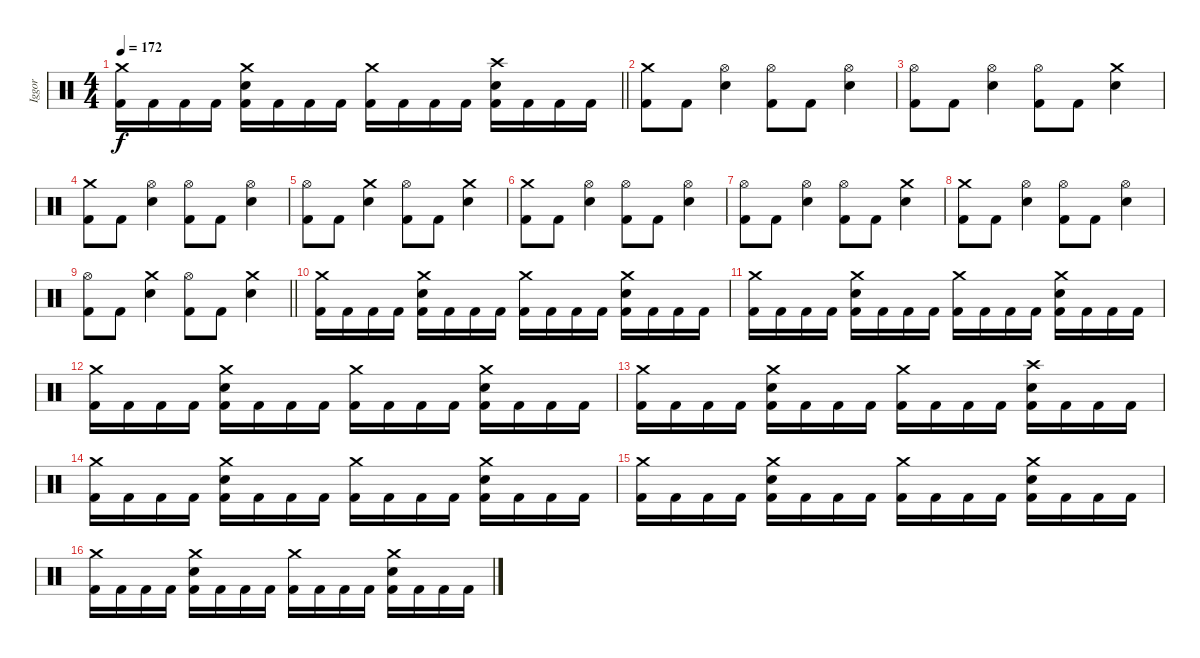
\track ("Iggor" "Iggor") {instrument percussion}
\staff {score}
\articulation defaults
\ts (4 4)
\tempo 172
\clef neutral
\barLineRight lightlight
\ks c
("Crash medium (hit)" "Kick (hit) 2").16{dy f} "Kick (hit) 2".16 "Kick (hit) 2".16 "Kick (hit) 2".16 ("Crash medium (hit)" "Snare (hit) 2" "Kick (hit) 2").16 "Kick (hit) 2".16 "Kick (hit) 2".16 "Kick (hit) 2".16 ("Crash medium (hit)" "Kick (hit) 2").16 "Kick (hit) 2".16 "Kick (hit) 2".16 "Kick (hit) 2".16 ("Crash high (hit)" "Snare (hit) 2" "Kick (hit) 2").16 "Kick (hit) 2".16 "Kick (hit) 2".16 "Kick (hit) 2".16 |
("Crash medium (hit)" "Kick (hit) 2").8 "Kick (hit) 2".8 ("Hi-Hat (open)" "Snare (hit) 2").4 ("Hi-Hat (open)" "Kick (hit) 2").8 "Kick (hit) 2".8 ("Hi-Hat (open)" "Snare (hit) 2").4 |
("Hi-Hat (open)" "Kick (hit) 2").8 "Kick (hit) 2".8 ("Hi-Hat (open)" "Snare (hit) 2").4 ("Hi-Hat (open)" "Kick (hit) 2").8 "Kick (hit) 2".8 ("Crash medium (hit)" "Snare (hit) 2").4 |
("Crash medium (hit)" "Kick (hit) 2").8 "Kick (hit) 2".8 ("Hi-Hat (open)" "Snare (hit) 2").4 ("Hi-Hat (open)" "Kick (hit) 2").8 "Kick (hit) 2".8 ("Hi-Hat (open)" "Snare (hit) 2").4 |
("Hi-Hat (open)" "Kick (hit) 2").8 "Kick (hit) 2".8 ("Crash medium (hit)" "Snare (hit) 2").4 ("Hi-Hat (open)" "Kick (hit) 2").8 "Kick (hit) 2".8 ("Crash medium (hit)" "Snare (hit) 2").4 |
("Crash medium (hit)" "Kick (hit) 2").8 "Kick (hit) 2".8 ("Hi-Hat (open)" "Snare (hit) 2").4 ("Hi-Hat (open)" "Kick (hit) 2").8 "Kick (hit) 2".8 ("Hi-Hat (open)" "Snare (hit) 2").4 |
("Hi-Hat (open)" "Kick (hit) 2").8 "Kick (hit) 2".8 ("Hi-Hat (open)" "Snare (hit) 2").4 ("Hi-Hat (open)" "Kick (hit) 2").8 "Kick (hit) 2".8 ("Crash medium (hit)" "Snare (hit) 2").4 |
("Crash medium (hit)" "Kick (hit) 2").8 "Kick (hit) 2".8 ("Hi-Hat (open)" "Snare (hit) 2").4 ("Hi-Hat (open)" "Kick (hit) 2").8 "Kick (hit) 2".8 ("Hi-Hat (open)" "Snare (hit) 2").4 |
\barLineRight lightlight
("Hi-Hat (open)" "Kick (hit) 2").8 "Kick (hit) 2".8 ("Crash medium (hit)" "Snare (hit) 2").4 ("Hi-Hat (open)" "Kick (hit) 2").8 "Kick (hit) 2".8 ("Crash medium (hit)" "Snare (hit) 2").4 |
("Crash medium (hit)" "Kick (hit) 2").16 "Kick (hit) 2".16 "Kick (hit) 2".16 "Kick (hit) 2".16 ("Crash medium (hit)" "Snare (hit) 2" "Kick (hit) 2").16 "Kick (hit) 2".16 "Kick (hit) 2".16 "Kick (hit) 2".16 ("Crash medium (hit)" "Kick (hit) 2").16 "Kick (hit) 2".16 "Kick (hit) 2".16 "Kick (hit) 2".16 ("Crash medium (hit)" "Snare (hit) 2" "Kick (hit) 2").16 "Kick (hit) 2".16 "Kick (hit) 2".16 "Kick (hit) 2".16 |
("Crash medium (hit)" "Kick (hit) 2").16 "Kick (hit) 2".16 "Kick (hit) 2".16 "Kick (hit) 2".16 ("Crash medium (hit)" "Snare (hit) 2" "Kick (hit) 2").16 "Kick (hit) 2".16 "Kick (hit) 2".16 "Kick (hit) 2".16 ("Crash medium (hit)" "Kick (hit) 2").16 "Kick (hit) 2".16 "Kick (hit) 2".16 "Kick (hit) 2".16 ("Crash medium (hit)" "Snare (hit) 2" "Kick (hit) 2").16 "Kick (hit) 2".16 "Kick (hit) 2".16 "Kick (hit) 2".16 |
("Crash medium (hit)" "Kick (hit) 2").16 "Kick (hit) 2".16 "Kick (hit) 2".16 "Kick (hit) 2".16 ("Crash medium (hit)" "Snare (hit) 2" "Kick (hit) 2").16 "Kick (hit) 2".16 "Kick (hit) 2".16 "Kick (hit) 2".16 ("Crash medium (hit)" "Kick (hit) 2").16 "Kick (hit) 2".16 "Kick (hit) 2".16 "Kick (hit) 2".16 ("Crash medium (hit)" "Snare (hit) 2" "Kick (hit) 2").16 "Kick (hit) 2".16 "Kick (hit) 2".16 "Kick (hit) 2".16 |
("Crash medium (hit)" "Kick (hit) 2").16 "Kick (hit) 2".16 "Kick (hit) 2".16 "Kick (hit) 2".16 ("Crash medium (hit)" "Snare (hit) 2" "Kick (hit) 2").16 "Kick (hit) 2".16 "Kick (hit) 2".16 "Kick (hit) 2".16 ("Crash medium (hit)" "Kick (hit) 2").16 "Kick (hit) 2".16 "Kick (hit) 2".16 "Kick (hit) 2".16 ("Crash high (hit)" "Snare (hit) 2" "Kick (hit) 2").16 "Kick (hit) 2".16 "Kick (hit) 2".16 "Kick (hit) 2".16 |
("Crash medium (hit)" "Kick (hit) 2").16 "Kick (hit) 2".16 "Kick (hit) 2".16 "Kick (hit) 2".16 ("Crash medium (hit)" "Snare (hit) 2" "Kick (hit) 2").16 "Kick (hit) 2".16 "Kick (hit) 2".16 "Kick (hit) 2".16 ("Crash medium (hit)" "Kick (hit) 2").16 "Kick (hit) 2".16 "Kick (hit) 2".16 "Kick (hit) 2".16 ("Crash medium (hit)" "Snare (hit) 2" "Kick (hit) 2").16 "Kick (hit) 2".16 "Kick (hit) 2".16 "Kick (hit) 2".16 |
("Crash medium (hit)" "Kick (hit) 2").16 "Kick (hit) 2".16 "Kick (hit) 2".16 "Kick (hit) 2".16 ("Crash medium (hit)" "Snare (hit) 2" "Kick (hit) 2").16 "Kick (hit) 2".16 "Kick (hit) 2".16 "Kick (hit) 2".16 ("Crash medium (hit)" "Kick (hit) 2").16 "Kick (hit) 2".16 "Kick (hit) 2".16 "Kick (hit) 2".16 ("Crash medium (hit)" "Snare (hit) 2" "Kick (hit) 2").16 "Kick (hit) 2".16 "Kick (hit) 2".16 "Kick (hit) 2".16 |
("Crash medium (hit)" "Kick (hit) 2").16 "Kick (hit) 2".16 "Kick (hit) 2".16 "Kick (hit) 2".16 ("Crash medium (hit)" "Snare (hit) 2" "Kick (hit) 2").16 "Kick (hit) 2".16 "Kick (hit) 2".16 "Kick (hit) 2".16 ("Crash medium (hit)" "Kick (hit) 2").16 "Kick (hit) 2".16 "Kick (hit) 2".16 "Kick (hit) 2".16 ("Crash medium (hit)" "Snare (hit) 2" "Kick (hit) 2").16 "Kick (hit) 2".16 "Kick (hit) 2".16 "Kick (hit) 2".16
